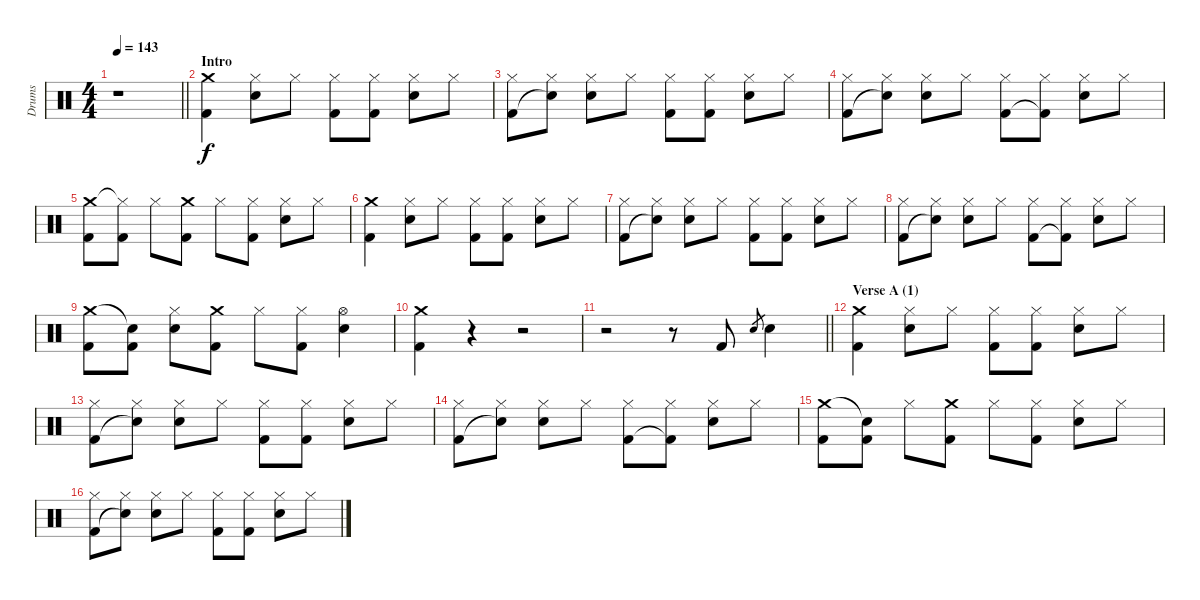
\track ("Drums" "Drums") {instrument percussion}
\staff {score}
\articulation defaults
\ts (4 4)
\tempo 143
\clef neutral
\barLineRight lightlight
\ks aminor
r.1{dy f} |
\section ("" "Intro")
("Crash medium (hit)" "Kick (hit) 2").4 ("Hi-Hat (closed)" "Electric Snare (hit)").8 "Hi-Hat (closed)".8 ("Hi-Hat (closed)" "Kick (hit) 2").8 ("Hi-Hat (closed)" "Kick (hit) 2").8 ("Hi-Hat (closed)" "Electric Snare (hit)").8 "Hi-Hat (closed)".8 |
("Hi-Hat (closed)" "Kick (hit) 2").8 ("Hi-Hat (closed)" "Snare (hit)"{t}).8 ("Hi-Hat (closed)" "Electric Snare (hit)").8 "Hi-Hat (closed)".8 ("Hi-Hat (closed)" "Kick (hit) 2").8 ("Hi-Hat (closed)" "Kick (hit) 2").8 ("Hi-Hat (closed)" "Electric Snare (hit)").8 "Hi-Hat (closed)".8 |
("Hi-Hat (closed)" "Kick (hit) 2").8 ("Hi-Hat (closed)" "Snare (hit)"{t}).8 ("Hi-Hat (closed)" "Electric Snare (hit)").8 "Hi-Hat (closed)".8 ("Hi-Hat (closed)" "Kick (hit) 2").8 ("Hi-Hat (closed)" "Kick (hit) 2"{t}).8 ("Hi-Hat (closed)" "Electric Snare (hit)").8 "Hi-Hat (closed)".8 |
("Crash medium (hit)" "Kick (hit) 2").8 ("Hi-Hat (closed)"{t} "Kick (hit) 2").8 "Hi-Hat (closed)".8 ("Crash medium (hit)" "Kick (hit) 2").8 "Hi-Hat (closed)".8 ("Hi-Hat (closed)" "Kick (hit) 2").8 ("Hi-Hat (closed)" "Electric Snare (hit)").8 "Hi-Hat (closed)".8 |
("Crash medium (hit)" "Kick (hit) 2").4 ("Hi-Hat (closed)" "Electric Snare (hit)").8 "Hi-Hat (closed)".8 ("Hi-Hat (closed)" "Kick (hit) 2").8 ("Hi-Hat (closed)" "Kick (hit) 2").8 ("Hi-Hat (closed)" "Electric Snare (hit)").8 "Hi-Hat (closed)".8 |
("Hi-Hat (closed)" "Kick (hit) 2").8 ("Hi-Hat (closed)" "Snare (hit)"{t}).8 ("Hi-Hat (closed)" "Electric Snare (hit)").8 "Hi-Hat (closed)".8 ("Hi-Hat (closed)" "Kick (hit) 2").8 ("Hi-Hat (closed)" "Kick (hit) 2").8 ("Hi-Hat (closed)" "Electric Snare (hit)").8 "Hi-Hat (closed)".8 |
("Hi-Hat (closed)" "Kick (hit) 2").8 ("Hi-Hat (closed)" "Snare (hit)"{t}).8 ("Hi-Hat (closed)" "Electric Snare (hit)").8 "Hi-Hat (closed)".8 ("Hi-Hat (closed)" "Kick (hit) 2").8 ("Hi-Hat (closed)" "Kick (hit) 2"{t}).8 ("Hi-Hat (closed)" "Electric Snare (hit)").8 "Hi-Hat (closed)".8 |
("Crash medium (hit)" "Kick (hit) 2").8 ("Snare (hit)"{t} "Kick (hit) 2").8 ("Hi-Hat (closed)" "Electric Snare (hit)").8 ("Crash medium (hit)" "Kick (hit) 2").8 "Hi-Hat (closed)".8 ("Hi-Hat (closed)" "Kick (hit) 2").8 ("Hi-Hat (open)" "Electric Snare (hit)").4 |
("Crash medium (hit)" "Kick (hit) 2").4 r.4 r.2 |
\barLineRight lightlight
r.2 r.8 "Kick (hit) 2".8 "Electric Snare (hit)".8{gr} "Electric Snare (hit)".4 |
\section ("" "Verse A (1)")
("Crash medium (hit)" "Kick (hit) 2").4 ("Hi-Hat (closed)" "Electric Snare (hit)").8 "Hi-Hat (closed)".8 ("Hi-Hat (closed)" "Kick (hit) 2").8 ("Hi-Hat (closed)" "Kick (hit) 2").8 ("Hi-Hat (closed)" "Electric Snare (hit)").8 "Hi-Hat (closed)".8 |
("Hi-Hat (closed)" "Kick (hit) 2").8 ("Hi-Hat (closed)" "Snare (hit)"{t}).8 ("Hi-Hat (closed)" "Electric Snare (hit)").8 "Hi-Hat (closed)".8 ("Hi-Hat (closed)" "Kick (hit) 2").8 ("Hi-Hat (closed)" "Kick (hit) 2").8 ("Hi-Hat (closed)" "Electric Snare (hit)").8 "Hi-Hat (closed)".8 |
("Hi-Hat (closed)" "Kick (hit) 2").8 ("Hi-Hat (closed)" "Snare (hit)"{t}).8 ("Hi-Hat (closed)" "Electric Snare (hit)").8 "Hi-Hat (closed)".8 ("Hi-Hat (closed)" "Kick (hit) 2").8 ("Hi-Hat (closed)" "Kick (hit) 2"{t}).8 ("Hi-Hat (closed)" "Electric Snare (hit)").8 "Hi-Hat (closed)".8 |
("Crash medium (hit)" "Kick (hit) 2").8 ("Snare (hit)"{t} "Kick (hit) 2").8 "Hi-Hat (closed)".8 ("Crash medium (hit)" "Kick (hit) 2").8 "Hi-Hat (closed)".8 ("Hi-Hat (closed)" "Kick (hit) 2").8 ("Hi-Hat (closed)" "Electric Snare (hit)").8 "Hi-Hat (closed)".8 |
("Hi-Hat (closed)" "Kick (hit) 2").8 ("Hi-Hat (closed)" "Snare (hit)"{t}).8 ("Hi-Hat (closed)" "Electric Snare (hit)").8 "Hi-Hat (closed)".8 ("Hi-Hat (closed)" "Kick (hit) 2").8 ("Hi-Hat (closed)" "Kick (hit) 2").8 ("Hi-Hat (closed)" "Electric Snare (hit)").8 "Hi-Hat (closed)".8
